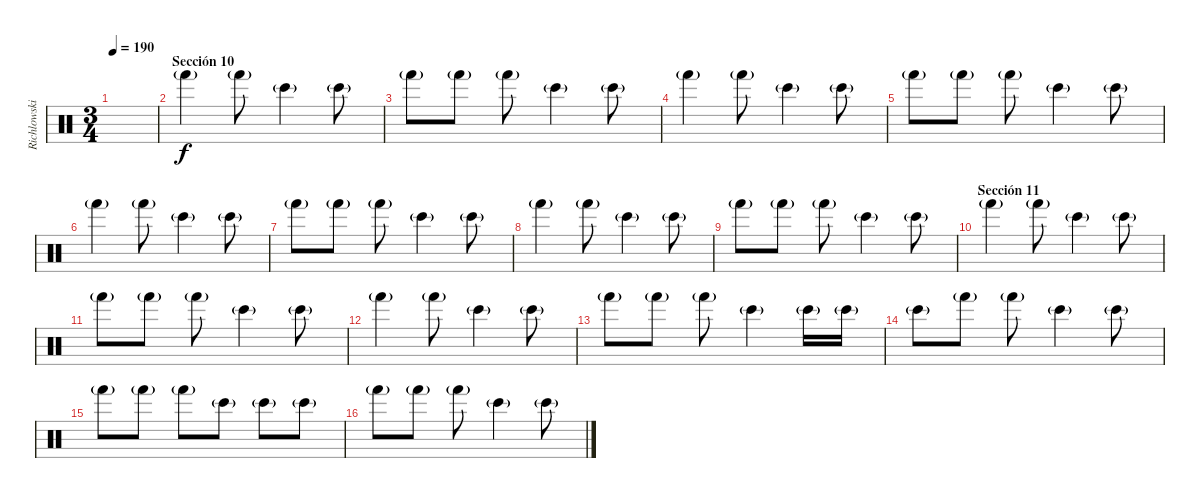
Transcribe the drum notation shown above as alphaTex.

\track ("Richlowski y Dj Raff" "Richlowski") {instrument percussion}
\staff {score}
\articulation defaults
\ts (3 4)
\tempo 190
\clef neutral
\ks c
|
\section ("" "Sección 10")
"Hand (hit)"{g}.4 "Hand (hit)"{g}.8 "Bongo High (hit)"{g}.4 "Bongo High (hit)"{g}.8 |
"Hand (hit)"{g}.8 "Hand (hit)"{g}.8 "Hand (hit)"{g}.8 "Bongo High (hit)"{g}.4 "Bongo High (hit)"{g}.8 |
"Hand (hit)"{g}.4 "Hand (hit)"{g}.8 "Bongo High (hit)"{g}.4 "Bongo High (hit)"{g}.8 |
"Hand (hit)"{g}.8 "Hand (hit)"{g}.8 "Hand (hit)"{g}.8 "Bongo High (hit)"{g}.4 "Bongo High (hit)"{g}.8 |
"Hand (hit)"{g}.4 "Hand (hit)"{g}.8 "Bongo High (hit)"{g}.4 "Bongo High (hit)"{g}.8 |
"Hand (hit)"{g}.8 "Hand (hit)"{g}.8 "Hand (hit)"{g}.8 "Bongo High (hit)"{g}.4 "Bongo High (hit)"{g}.8 |
"Hand (hit)"{g}.4 "Hand (hit)"{g}.8 "Bongo High (hit)"{g}.4 "Bongo High (hit)"{g}.8 |
"Hand (hit)"{g}.8 "Hand (hit)"{g}.8 "Hand (hit)"{g}.8 "Bongo High (hit)"{g}.4 "Bongo High (hit)"{g}.8 |
\section ("" "Sección 11")
"Hand (hit)"{g}.4 "Hand (hit)"{g}.8 "Bongo High (hit)"{g}.4 "Bongo High (hit)"{g}.8 |
"Hand (hit)"{g}.8 "Hand (hit)"{g}.8 "Hand (hit)"{g}.8 "Bongo High (hit)"{g}.4 "Bongo High (hit)"{g}.8 |
"Hand (hit)"{g}.4 "Hand (hit)"{g}.8 "Bongo High (hit)"{g}.4 "Bongo High (hit)"{g}.8 |
"Hand (hit)"{g}.8 "Hand (hit)"{g}.8 "Hand (hit)"{g}.8 "Bongo High (hit)"{g}.4 "Bongo High (hit)"{g}.16 "Bongo High (hit)"{g}.16 |
"Bongo High (hit)"{g}.8 "Hand (hit)"{g}.8 "Hand (hit)"{g}.8 "Bongo High (hit)"{g}.4 "Bongo High (hit)"{g}.8 |
"Hand (hit)"{g}.8 "Hand (hit)"{g}.8 "Hand (hit)"{g}.8 "Bongo High (hit)"{g}.8 "Bongo High (hit)"{g}.8 "Bongo High (hit)"{g}.8 |
"Hand (hit)"{g}.8 "Hand (hit)"{g}.8 "Hand (hit)"{g}.8 "Bongo High (hit)"{g}.4 "Bongo High (hit)"{g}.8
